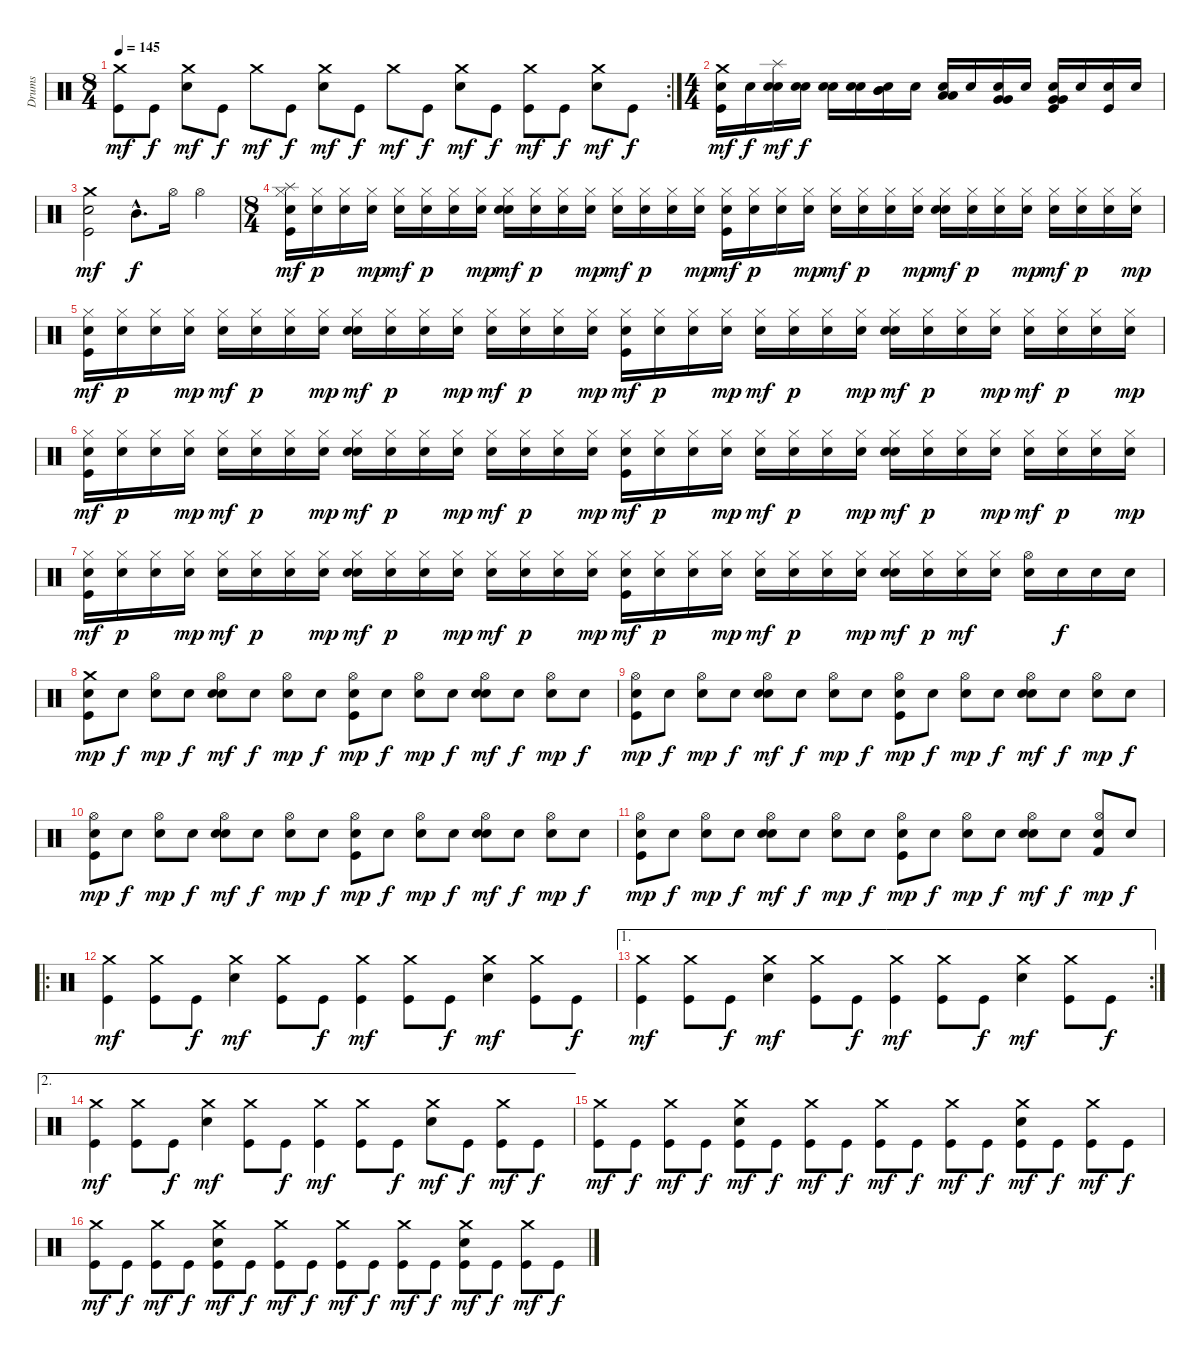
\track ("Drums" "Drums") {instrument percussion}
\staff {score}
\articulation defaults
\rc 2
\ts (8 4)
\tempo 145
\clef neutral
\ks c
("Crash medium (hit)" "Kick (hit)").8{dy mf} "Kick (hit)".8{dy f} ("Crash medium (hit)" "Electric Snare (hit)").8{dy mf} "Kick (hit)".8{dy f} "Crash medium (hit)".8{dy mf} "Kick (hit)".8{dy f} ("Crash medium (hit)" "Electric Snare (hit)").8{dy mf} "Kick (hit)".8{dy f} "Crash medium (hit)".8{dy mf} "Kick (hit)".8{dy f} ("Crash medium (hit)" "Electric Snare (hit)").8{dy mf} "Kick (hit)".8{dy f} ("Crash medium (hit)" "Kick (hit)").8{dy mf} "Kick (hit)".8{dy f} ("Crash medium (hit)" "Electric Snare (hit)").8{dy mf} "Kick (hit)".8{dy f} |
\ts (4 4)
("Snare (hit)"{x} "Crash medium (hit)" "Kick (hit)").16{dy mf} "Snare (hit)"{x}.16{dy f} ("Snare (hit)"{x} "Splash (hit)" "Electric Snare (hit)").16{dy mf} ("Snare (hit)"{x} "Electric Snare (hit)").16{dy f} ("Snare (hit)"{x} "Electric Snare (hit)").16 ("Snare (hit)"{x} "Electric Snare (hit)").16 ("Snare (hit)"{x} "Mid Tom (hit)" "Mid Tom (hit)").16 "Snare (hit)"{x}.16 ("Snare (hit)"{x} "Low Tom (hit)" "Low Tom (hit)").16 "Snare (hit)"{x}.16 ("Snare (hit)"{x} "Very Low Tom (hit)" "Very Low Tom (hit)").16 "Snare (hit)"{x}.16 ("Snare (hit)"{x} "Very Low Tom (hit)" "Very Low Tom (hit)" "Kick (hit)").16 "Snare (hit)"{x}.16 ("Snare (hit)"{x} "Kick (hit)").16 "Snare (hit)"{x}.16 |
("Snare (hit)"{x} "Crash medium (hit)" "Kick (hit)").2{dy mf} "Mid Tom (hit)"{hac}.8{d dy f} "Hi-Hat (open)".16 "Hi-Hat (open)".4 |
\ts (8 4)
("Snare (hit)"{x} "Hi-Hat (closed)" "Splash (hit)" "Kick (hit)").16{dy mf} ("Snare (hit)"{x} "Hi-Hat (closed)").16{dy p} ("Snare (hit)"{x} "Hi-Hat (closed)").16 ("Snare (hit)"{x} "Hi-Hat (closed)").16{dy mp} ("Snare (hit)"{x} "Hi-Hat (closed)").16{dy mf} ("Snare (hit)"{x} "Hi-Hat (closed)").16{dy p} ("Snare (hit)"{x} "Hi-Hat (closed)").16 ("Snare (hit)"{x} "Hi-Hat (closed)").16{dy mp} ("Snare (hit)"{x} "Hi-Hat (closed)" "Electric Snare (hit)").16{dy mf} ("Snare (hit)"{x} "Hi-Hat (closed)").16{dy p} ("Snare (hit)"{x} "Hi-Hat (closed)").16 ("Snare (hit)"{x} "Hi-Hat (closed)").16{dy mp} ("Snare (hit)"{x} "Hi-Hat (closed)").16{dy mf} ("Snare (hit)"{x} "Hi-Hat (closed)").16{dy p} ("Snare (hit)"{x} "Hi-Hat (closed)").16 ("Snare (hit)"{x} "Hi-Hat (closed)").16{dy mp} ("Snare (hit)"{x} "Hi-Hat (closed)" "Kick (hit)").16{dy mf} ("Snare (hit)"{x} "Hi-Hat (closed)").16{dy p} ("Snare (hit)"{x} "Hi-Hat (closed)").16 ("Snare (hit)"{x} "Hi-Hat (closed)").16{dy mp} ("Snare (hit)"{x} "Hi-Hat (closed)").16{dy mf} ("Snare (hit)"{x} "Hi-Hat (closed)").16{dy p} ("Snare (hit)"{x} "Hi-Hat (closed)").16 ("Snare (hit)"{x} "Hi-Hat (closed)").16{dy mp} ("Snare (hit)"{x} "Hi-Hat (closed)" "Electric Snare (hit)").16{dy mf} ("Snare (hit)"{x} "Hi-Hat (closed)").16{dy p} ("Snare (hit)"{x} "Hi-Hat (closed)").16 ("Snare (hit)"{x} "Hi-Hat (closed)").16{dy mp} ("Snare (hit)"{x} "Hi-Hat (closed)").16{dy mf} ("Snare (hit)"{x} "Hi-Hat (closed)").16{dy p} ("Snare (hit)"{x} "Hi-Hat (closed)").16 ("Snare (hit)"{x} "Hi-Hat (closed)").16{dy mp} |
("Snare (hit)"{x} "Hi-Hat (closed)" "Kick (hit)").16{dy mf} ("Snare (hit)"{x} "Hi-Hat (closed)").16{dy p} ("Snare (hit)"{x} "Hi-Hat (closed)").16 ("Snare (hit)"{x} "Hi-Hat (closed)").16{dy mp} ("Snare (hit)"{x} "Hi-Hat (closed)").16{dy mf} ("Snare (hit)"{x} "Hi-Hat (closed)").16{dy p} ("Snare (hit)"{x} "Hi-Hat (closed)").16 ("Snare (hit)"{x} "Hi-Hat (closed)").16{dy mp} ("Snare (hit)"{x} "Hi-Hat (closed)" "Electric Snare (hit)").16{dy mf} ("Snare (hit)"{x} "Hi-Hat (closed)").16{dy p} ("Snare (hit)"{x} "Hi-Hat (closed)").16 ("Snare (hit)"{x} "Hi-Hat (closed)").16{dy mp} ("Snare (hit)"{x} "Hi-Hat (closed)").16{dy mf} ("Snare (hit)"{x} "Hi-Hat (closed)").16{dy p} ("Snare (hit)"{x} "Hi-Hat (closed)").16 ("Snare (hit)"{x} "Hi-Hat (closed)").16{dy mp} ("Snare (hit)"{x} "Hi-Hat (closed)" "Kick (hit)").16{dy mf} ("Snare (hit)"{x} "Hi-Hat (closed)").16{dy p} ("Snare (hit)"{x} "Hi-Hat (closed)").16 ("Snare (hit)"{x} "Hi-Hat (closed)").16{dy mp} ("Snare (hit)"{x} "Hi-Hat (closed)").16{dy mf} ("Snare (hit)"{x} "Hi-Hat (closed)").16{dy p} ("Snare (hit)"{x} "Hi-Hat (closed)").16 ("Snare (hit)"{x} "Hi-Hat (closed)").16{dy mp} ("Snare (hit)"{x} "Hi-Hat (closed)" "Electric Snare (hit)").16{dy mf} ("Snare (hit)"{x} "Hi-Hat (closed)").16{dy p} ("Snare (hit)"{x} "Hi-Hat (closed)").16 ("Snare (hit)"{x} "Hi-Hat (closed)").16{dy mp} ("Snare (hit)"{x} "Hi-Hat (closed)").16{dy mf} ("Snare (hit)"{x} "Hi-Hat (closed)").16{dy p} ("Snare (hit)"{x} "Hi-Hat (closed)").16 ("Snare (hit)"{x} "Hi-Hat (closed)").16{dy mp} |
("Snare (hit)"{x} "Hi-Hat (closed)" "Kick (hit)").16{dy mf} ("Snare (hit)"{x} "Hi-Hat (closed)").16{dy p} ("Snare (hit)"{x} "Hi-Hat (closed)").16 ("Snare (hit)"{x} "Hi-Hat (closed)").16{dy mp} ("Snare (hit)"{x} "Hi-Hat (closed)").16{dy mf} ("Snare (hit)"{x} "Hi-Hat (closed)").16{dy p} ("Snare (hit)"{x} "Hi-Hat (closed)").16 ("Snare (hit)"{x} "Hi-Hat (closed)").16{dy mp} ("Snare (hit)"{x} "Hi-Hat (closed)" "Electric Snare (hit)").16{dy mf} ("Snare (hit)"{x} "Hi-Hat (closed)").16{dy p} ("Snare (hit)"{x} "Hi-Hat (closed)").16 ("Snare (hit)"{x} "Hi-Hat (closed)").16{dy mp} ("Snare (hit)"{x} "Hi-Hat (closed)").16{dy mf} ("Snare (hit)"{x} "Hi-Hat (closed)").16{dy p} ("Snare (hit)"{x} "Hi-Hat (closed)").16 ("Snare (hit)"{x} "Hi-Hat (closed)").16{dy mp} ("Snare (hit)"{x} "Hi-Hat (closed)" "Kick (hit)").16{dy mf} ("Snare (hit)"{x} "Hi-Hat (closed)").16{dy p} ("Snare (hit)"{x} "Hi-Hat (closed)").16 ("Snare (hit)"{x} "Hi-Hat (closed)").16{dy mp} ("Snare (hit)"{x} "Hi-Hat (closed)").16{dy mf} ("Snare (hit)"{x} "Hi-Hat (closed)").16{dy p} ("Snare (hit)"{x} "Hi-Hat (closed)").16 ("Snare (hit)"{x} "Hi-Hat (closed)").16{dy mp} ("Snare (hit)"{x} "Hi-Hat (closed)" "Electric Snare (hit)").16{dy mf} ("Snare (hit)"{x} "Hi-Hat (closed)").16{dy p} ("Snare (hit)"{x} "Hi-Hat (closed)").16 ("Snare (hit)"{x} "Hi-Hat (closed)").16{dy mp} ("Snare (hit)"{x} "Hi-Hat (closed)").16{dy mf} ("Snare (hit)"{x} "Hi-Hat (closed)").16{dy p} ("Snare (hit)"{x} "Hi-Hat (closed)").16 ("Snare (hit)"{x} "Hi-Hat (closed)").16{dy mp} |
("Snare (hit)"{x} "Hi-Hat (closed)" "Kick (hit)").16{dy mf} ("Snare (hit)"{x} "Hi-Hat (closed)").16{dy p} ("Snare (hit)"{x} "Hi-Hat (closed)").16 ("Snare (hit)"{x} "Hi-Hat (closed)").16{dy mp} ("Snare (hit)"{x} "Hi-Hat (closed)").16{dy mf} ("Snare (hit)"{x} "Hi-Hat (closed)").16{dy p} ("Snare (hit)"{x} "Hi-Hat (closed)").16 ("Snare (hit)"{x} "Hi-Hat (closed)").16{dy mp} ("Snare (hit)"{x} "Hi-Hat (closed)" "Electric Snare (hit)").16{dy mf} ("Snare (hit)"{x} "Hi-Hat (closed)").16{dy p} ("Snare (hit)"{x} "Hi-Hat (closed)").16 ("Snare (hit)"{x} "Hi-Hat (closed)").16{dy mp} ("Snare (hit)"{x} "Hi-Hat (closed)").16{dy mf} ("Snare (hit)"{x} "Hi-Hat (closed)").16{dy p} ("Snare (hit)"{x} "Hi-Hat (closed)").16 ("Snare (hit)"{x} "Hi-Hat (closed)").16{dy mp} ("Snare (hit)"{x} "Hi-Hat (closed)" "Kick (hit)").16{dy mf} ("Snare (hit)"{x} "Hi-Hat (closed)").16{dy p} ("Snare (hit)"{x} "Hi-Hat (closed)").16 ("Snare (hit)"{x} "Hi-Hat (closed)").16{dy mp} ("Snare (hit)"{x} "Hi-Hat (closed)").16{dy mf} ("Snare (hit)"{x} "Hi-Hat (closed)").16{dy p} ("Snare (hit)"{x} "Hi-Hat (closed)").16 ("Snare (hit)"{x} "Hi-Hat (closed)").16{dy mp} ("Snare (hit)"{x} "Hi-Hat (closed)" "Electric Snare (hit)").16{dy mf} ("Snare (hit)"{x} "Hi-Hat (closed)").16{dy p} ("Snare (hit)"{x} "Hi-Hat (closed)").16{dy mf} ("Snare (hit)"{x} "Hi-Hat (closed)").16 ("Snare (hit)"{x} "Hi-Hat (open)").16 "Snare (hit)"{x}.16{dy f} "Snare (hit)"{x}.16 "Snare (hit)"{x}.16 |
("Snare (hit)"{x} "Crash medium (hit)" "Kick (hit)").8{dy mp} "Snare (hit)"{x}.8{dy f} ("Snare (hit)"{x} "Hi-Hat (open)").8{dy mp} "Snare (hit)"{x}.8{dy f} ("Snare (hit)"{x} "Hi-Hat (open)" "Electric Snare (hit)").8{dy mf} "Snare (hit)"{x}.8{dy f} ("Snare (hit)"{x} "Hi-Hat (open)").8{dy mp} "Snare (hit)"{x}.8{dy f} ("Snare (hit)"{x} "Hi-Hat (open)" "Kick (hit)").8{dy mp} "Snare (hit)"{x}.8{dy f} ("Snare (hit)"{x} "Hi-Hat (open)").8{dy mp} "Snare (hit)"{x}.8{dy f} ("Snare (hit)"{x} "Hi-Hat (open)" "Electric Snare (hit)").8{dy mf} "Snare (hit)"{x}.8{dy f} ("Snare (hit)"{x} "Hi-Hat (open)").8{dy mp} "Snare (hit)"{x}.8{dy f} |
("Snare (hit)"{x} "Hi-Hat (open)" "Kick (hit)").8{dy mp} "Snare (hit)"{x}.8{dy f} ("Snare (hit)"{x} "Hi-Hat (open)").8{dy mp} "Snare (hit)"{x}.8{dy f} ("Snare (hit)"{x} "Hi-Hat (open)" "Electric Snare (hit)").8{dy mf} "Snare (hit)"{x}.8{dy f} ("Snare (hit)"{x} "Hi-Hat (open)").8{dy mp} "Snare (hit)"{x}.8{dy f} ("Snare (hit)"{x} "Hi-Hat (open)" "Kick (hit)").8{dy mp} "Snare (hit)"{x}.8{dy f} ("Snare (hit)"{x} "Hi-Hat (open)").8{dy mp} "Snare (hit)"{x}.8{dy f} ("Snare (hit)"{x} "Hi-Hat (open)" "Electric Snare (hit)").8{dy mf} "Snare (hit)"{x}.8{dy f} ("Snare (hit)"{x} "Hi-Hat (open)").8{dy mp} "Snare (hit)"{x}.8{dy f} |
("Snare (hit)"{x} "Hi-Hat (open)" "Kick (hit)").8{dy mp} "Snare (hit)"{x}.8{dy f} ("Snare (hit)"{x} "Hi-Hat (open)").8{dy mp} "Snare (hit)"{x}.8{dy f} ("Snare (hit)"{x} "Hi-Hat (open)" "Electric Snare (hit)").8{dy mf} "Snare (hit)"{x}.8{dy f} ("Snare (hit)"{x} "Hi-Hat (open)").8{dy mp} "Snare (hit)"{x}.8{dy f} ("Snare (hit)"{x} "Hi-Hat (open)" "Kick (hit)").8{dy mp} "Snare (hit)"{x}.8{dy f} ("Snare (hit)"{x} "Hi-Hat (open)").8{dy mp} "Snare (hit)"{x}.8{dy f} ("Snare (hit)"{x} "Hi-Hat (open)" "Electric Snare (hit)").8{dy mf} "Snare (hit)"{x}.8{dy f} ("Snare (hit)"{x} "Hi-Hat (open)").8{dy mp} "Snare (hit)"{x}.8{dy f} |
("Snare (hit)"{x} "Hi-Hat (open)" "Kick (hit)").8{dy mp} "Snare (hit)"{x}.8{dy f} ("Snare (hit)"{x} "Hi-Hat (open)").8{dy mp} "Snare (hit)"{x}.8{dy f} ("Snare (hit)"{x} "Hi-Hat (open)" "Electric Snare (hit)").8{dy mf} "Snare (hit)"{x}.8{dy f} ("Snare (hit)"{x} "Hi-Hat (open)").8{dy mp} "Snare (hit)"{x}.8{dy f} ("Snare (hit)"{x} "Hi-Hat (open)" "Kick (hit)").8{dy mp} "Snare (hit)"{x}.8{dy f} ("Snare (hit)"{x} "Hi-Hat (open)").8{dy mp} "Snare (hit)"{x}.8{dy f} ("Snare (hit)"{x} "Hi-Hat (open)" "Electric Snare (hit)").8{dy mf} "Snare (hit)"{x}.8{dy f} ("Snare (hit)"{x} "Hi-Hat (open)" "Kick (hit) 2").8{dy mp} "Snare (hit)"{x}.8{dy f} |
\ro
("Crash medium (hit)" "Kick (hit)").4{dy mf} ("Crash medium (hit)" "Kick (hit)").8 "Kick (hit)".8{dy f} ("Crash medium (hit)" "Electric Snare (hit)").4{dy mf} ("Crash medium (hit)" "Kick (hit)").8 "Kick (hit)".8{dy f} ("Crash medium (hit)" "Kick (hit)").4{dy mf} ("Crash medium (hit)" "Kick (hit)").8 "Kick (hit)".8{dy f} ("Crash medium (hit)" "Electric Snare (hit)").4{dy mf} ("Crash medium (hit)" "Kick (hit)").8 "Kick (hit)".8{dy f} |
\ae 1
\rc 2
("Crash medium (hit)" "Kick (hit)").4{dy mf} ("Crash medium (hit)" "Kick (hit)").8 "Kick (hit)".8{dy f} ("Crash medium (hit)" "Electric Snare (hit)").4{dy mf} ("Crash medium (hit)" "Kick (hit)").8 "Kick (hit)".8{dy f} ("Crash medium (hit)" "Kick (hit)").4{dy mf} ("Crash medium (hit)" "Kick (hit)").8 "Kick (hit)".8{dy f} ("Crash medium (hit)" "Electric Snare (hit)").4{dy mf} ("Crash medium (hit)" "Kick (hit)").8 "Kick (hit)".8{dy f} |
\ae 2
("Crash medium (hit)" "Kick (hit)").4{dy mf} ("Crash medium (hit)" "Kick (hit)").8 "Kick (hit)".8{dy f} ("Crash medium (hit)" "Electric Snare (hit)").4{dy mf} ("Crash medium (hit)" "Kick (hit)").8 "Kick (hit)".8{dy f} ("Crash medium (hit)" "Kick (hit)").4{dy mf} ("Crash medium (hit)" "Kick (hit)").8 "Kick (hit)".8{dy f} ("Crash medium (hit)" "Electric Snare (hit)").8{dy mf} "Kick (hit)".8{dy f} ("Crash medium (hit)" "Kick (hit)").8{dy mf} "Kick (hit)".8{dy f} |
("Crash medium (hit)" "Kick (hit)").8{dy mf} "Kick (hit)".8{dy f} ("Crash medium (hit)" "Kick (hit)").8{dy mf} "Kick (hit)".8{dy f} ("Crash medium (hit)" "Electric Snare (hit)" "Kick (hit)").8{dy mf} "Kick (hit)".8{dy f} ("Crash medium (hit)" "Kick (hit)").8{dy mf} "Kick (hit)".8{dy f} ("Crash medium (hit)" "Kick (hit)").8{dy mf} "Kick (hit)".8{dy f} ("Crash medium (hit)" "Kick (hit)").8{dy mf} "Kick (hit)".8{dy f} ("Crash medium (hit)" "Electric Snare (hit)" "Kick (hit)").8{dy mf} "Kick (hit)".8{dy f} ("Crash medium (hit)" "Kick (hit)").8{dy mf} "Kick (hit)".8{dy f} |
("Crash medium (hit)" "Kick (hit)").8{dy mf} "Kick (hit)".8{dy f} ("Crash medium (hit)" "Kick (hit)").8{dy mf} "Kick (hit)".8{dy f} ("Crash medium (hit)" "Electric Snare (hit)" "Kick (hit)").8{dy mf} "Kick (hit)".8{dy f} ("Crash medium (hit)" "Kick (hit)").8{dy mf} "Kick (hit)".8{dy f} ("Crash medium (hit)" "Kick (hit)").8{dy mf} "Kick (hit)".8{dy f} ("Crash medium (hit)" "Kick (hit)").8{dy mf} "Kick (hit)".8{dy f} ("Crash medium (hit)" "Electric Snare (hit)" "Kick (hit)").8{dy mf} "Kick (hit)".8{dy f} ("Crash medium (hit)" "Kick (hit)").8{dy mf} "Kick (hit)".8{dy f}
